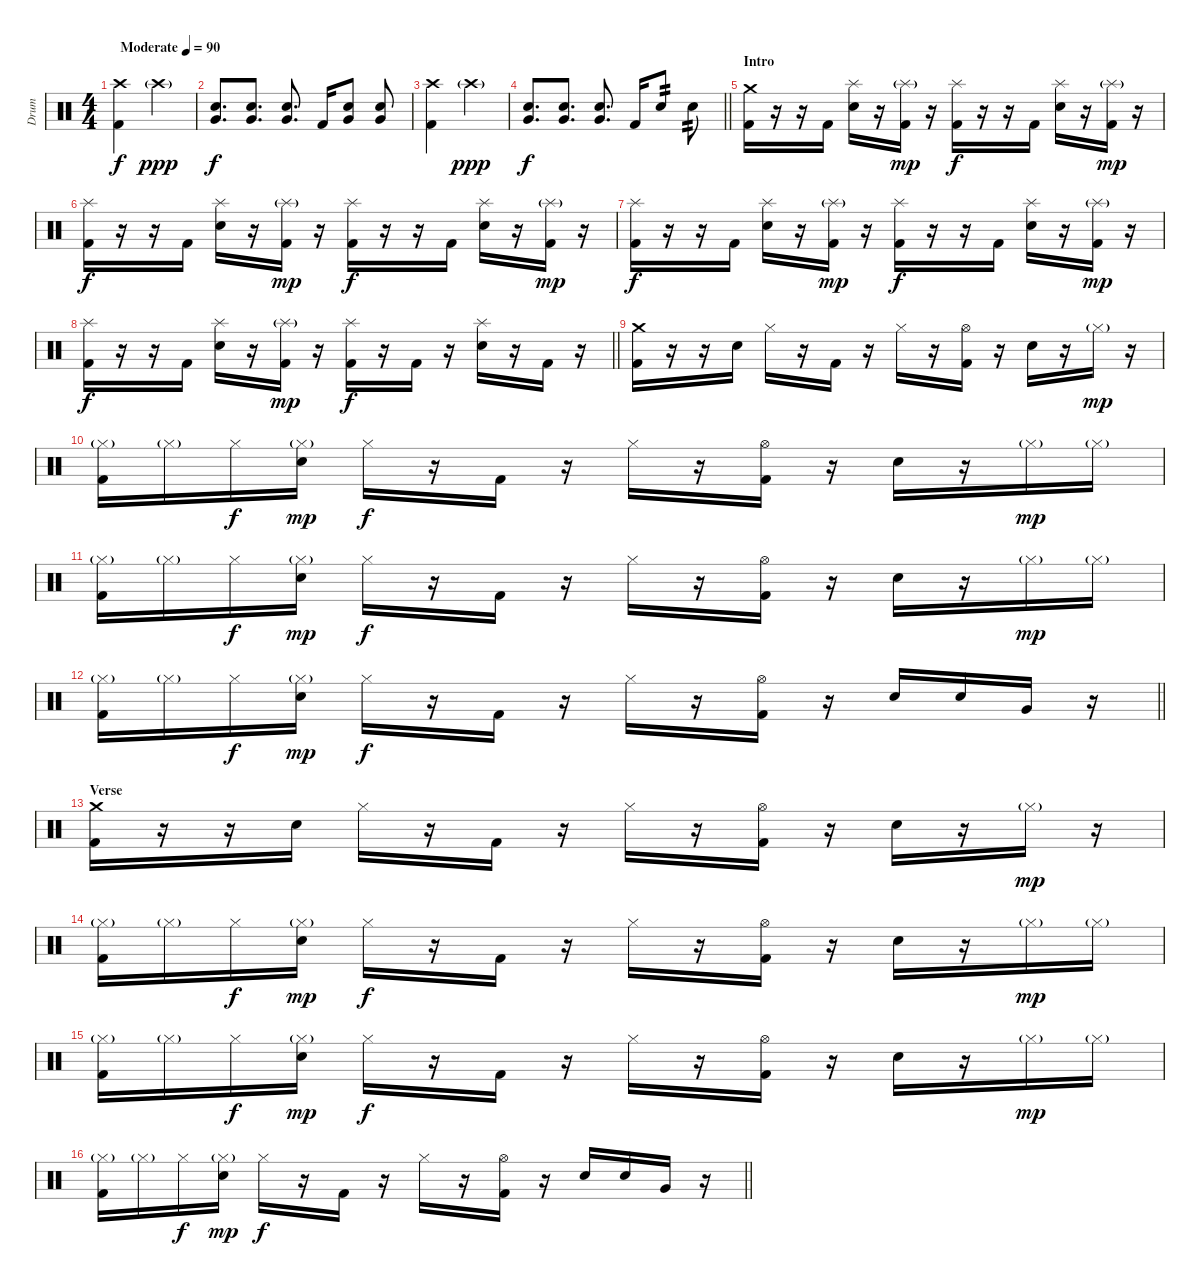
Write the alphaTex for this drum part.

\track ("Drum" "Drum") {instrument percussion}
\staff {score}
\articulation defaults
\ts (4 4)
\tempo (90 "Moderate")
\clef neutral
\ks c
("Crash high (hit)" "Kick (hit) 2").4{dy f} "Crash high (hit)"{g}.4{dy ppp} |
("Very Low Tom (hit)" "Electric Snare (hit)").8{d dy f} ("Very Low Tom (hit)" "Electric Snare (hit)").8{d} ("Very Low Tom (hit)" "Electric Snare (hit)").8{d} "Kick (hit) 2".16 ("Very Low Tom (hit)" "Electric Snare (hit)").8 ("Very Low Tom (hit)" "Electric Snare (hit)").8 |
("Crash high (hit)" "Kick (hit) 2").4 "Crash high (hit)"{g}.4{dy ppp} |
\barLineRight lightlight
("Very Low Tom (hit)" "Electric Snare (hit)").8{d dy f} ("Very Low Tom (hit)" "Electric Snare (hit)").8{d} ("Very Low Tom (hit)" "Electric Snare (hit)").8{d} "Kick (hit) 2".16 "Electric Snare (hit)".8{tp 2} "Electric Snare (hit)".8{tp 2} |
\section ("" "Intro")
("Crash medium (hit)" "Kick (hit) 2").16 r.16 r.16 "Kick (hit) 2".16 ("Splash (hit)" "Electric Snare (hit)").16 r.16 ("Splash (hit)"{g} "Kick (hit) 2").16{dy mp} r.16 ("Splash (hit)" "Kick (hit) 2").16{dy f} r.16 r.16 "Kick (hit) 2".16 ("Splash (hit)" "Electric Snare (hit)").16 r.16 ("Splash (hit)"{g} "Kick (hit) 2").16{dy mp} r.16 |
("Splash (hit)" "Kick (hit) 2").16{dy f} r.16 r.16 "Kick (hit) 2".16 ("Splash (hit)" "Electric Snare (hit)").16 r.16 ("Splash (hit)"{g} "Kick (hit) 2").16{dy mp} r.16 ("Splash (hit)" "Kick (hit) 2").16{dy f} r.16 r.16 "Kick (hit) 2".16 ("Splash (hit)" "Electric Snare (hit)").16 r.16 ("Splash (hit)"{g} "Kick (hit) 2").16{dy mp} r.16 |
("Splash (hit)" "Kick (hit) 2").16{dy f} r.16 r.16 "Kick (hit) 2".16 ("Splash (hit)" "Electric Snare (hit)").16 r.16 ("Splash (hit)"{g} "Kick (hit) 2").16{dy mp} r.16 ("Splash (hit)" "Kick (hit) 2").16{dy f} r.16 r.16 "Kick (hit) 2".16 ("Splash (hit)" "Electric Snare (hit)").16 r.16 ("Splash (hit)"{g} "Kick (hit) 2").16{dy mp} r.16 |
\barLineRight lightlight
("Splash (hit)" "Kick (hit) 2").16{dy f} r.16 r.16 "Kick (hit) 2".16 ("Splash (hit)" "Electric Snare (hit)").16 r.16 ("Splash (hit)"{g} "Kick (hit) 2").16{dy mp} r.16 ("Splash (hit)" "Kick (hit) 2").16{dy f} r.16 "Kick (hit) 2".16 r.16 ("Splash (hit)" "Electric Snare (hit)").16 r.16 "Kick (hit) 2".16 r.16 |
\section ("" "")
("Crash medium (hit)" "Kick (hit) 2").16 r.16 r.16 "Electric Snare (hit)".16 "Hi-Hat (closed)".16 r.16 "Kick (hit) 2".16 r.16 "Hi-Hat (closed)".16 r.16 ("Hi-Hat (open)" "Kick (hit) 2").16 r.16 "Electric Snare (hit)".16 r.16 "Hi-Hat (closed)"{g}.16{dy mp} r.16 |
("Hi-Hat (closed)"{g} "Kick (hit) 2").16 "Hi-Hat (closed)"{g}.16 "Hi-Hat (closed)".16{dy f} ("Hi-Hat (closed)"{g} "Electric Snare (hit)").16{dy mp} "Hi-Hat (closed)".16{dy f} r.16 "Kick (hit) 2".16 r.16 "Hi-Hat (closed)".16 r.16 ("Hi-Hat (open)" "Kick (hit) 2").16 r.16 "Electric Snare (hit)".16 r.16 "Hi-Hat (closed)"{g}.16{dy mp} "Hi-Hat (closed)"{g}.16 |
("Hi-Hat (closed)"{g} "Kick (hit) 2").16 "Hi-Hat (closed)"{g}.16 "Hi-Hat (closed)".16{dy f} ("Hi-Hat (closed)"{g} "Electric Snare (hit)").16{dy mp} "Hi-Hat (closed)".16{dy f} r.16 "Kick (hit) 2".16 r.16 "Hi-Hat (closed)".16 r.16 ("Hi-Hat (open)" "Kick (hit) 2").16 r.16 "Electric Snare (hit)".16 r.16 "Hi-Hat (closed)"{g}.16{dy mp} "Hi-Hat (closed)"{g}.16 |
\barLineRight lightlight
("Hi-Hat (closed)"{g} "Kick (hit) 2").16 "Hi-Hat (closed)"{g}.16 "Hi-Hat (closed)".16{dy f} ("Hi-Hat (closed)"{g} "Electric Snare (hit)").16{dy mp} "Hi-Hat (closed)".16{dy f} r.16 "Kick (hit) 2".16 r.16 "Hi-Hat (closed)".16 r.16 ("Hi-Hat (open)" "Kick (hit) 2").16 r.16 "Electric Snare (hit)".16 "Electric Snare (hit)".16 "Very Low Tom (hit)".16 r.16 |
\section ("" "Verse")
("Crash medium (hit)" "Kick (hit) 2").16 r.16 r.16 "Electric Snare (hit)".16 "Hi-Hat (closed)".16 r.16 "Kick (hit) 2".16 r.16 "Hi-Hat (closed)".16 r.16 ("Hi-Hat (open)" "Kick (hit) 2").16 r.16 "Electric Snare (hit)".16 r.16 "Hi-Hat (closed)"{g}.16{dy mp} r.16 |
("Hi-Hat (closed)"{g} "Kick (hit) 2").16 "Hi-Hat (closed)"{g}.16 "Hi-Hat (closed)".16{dy f} ("Hi-Hat (closed)"{g} "Electric Snare (hit)").16{dy mp} "Hi-Hat (closed)".16{dy f} r.16 "Kick (hit) 2".16 r.16 "Hi-Hat (closed)".16 r.16 ("Hi-Hat (open)" "Kick (hit) 2").16 r.16 "Electric Snare (hit)".16 r.16 "Hi-Hat (closed)"{g}.16{dy mp} "Hi-Hat (closed)"{g}.16 |
("Hi-Hat (closed)"{g} "Kick (hit) 2").16 "Hi-Hat (closed)"{g}.16 "Hi-Hat (closed)".16{dy f} ("Hi-Hat (closed)"{g} "Electric Snare (hit)").16{dy mp} "Hi-Hat (closed)".16{dy f} r.16 "Kick (hit) 2".16 r.16 "Hi-Hat (closed)".16 r.16 ("Hi-Hat (open)" "Kick (hit) 2").16 r.16 "Electric Snare (hit)".16 r.16 "Hi-Hat (closed)"{g}.16{dy mp} "Hi-Hat (closed)"{g}.16 |
\barLineRight lightlight
("Hi-Hat (closed)"{g} "Kick (hit) 2").16 "Hi-Hat (closed)"{g}.16 "Hi-Hat (closed)".16{dy f} ("Hi-Hat (closed)"{g} "Electric Snare (hit)").16{dy mp} "Hi-Hat (closed)".16{dy f} r.16 "Kick (hit) 2".16 r.16 "Hi-Hat (closed)".16 r.16 ("Hi-Hat (open)" "Kick (hit) 2").16 r.16 "Electric Snare (hit)".16 "Electric Snare (hit)".16 "Very Low Tom (hit)".16 r.16
